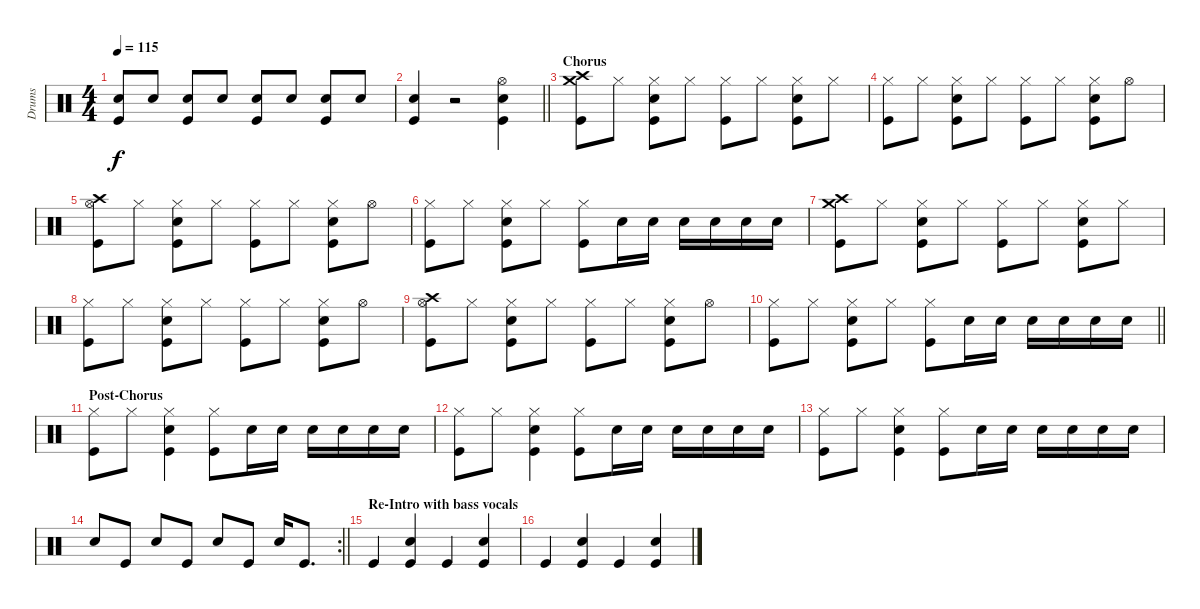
\track ("Drums" "Drums") {instrument percussion}
\staff {score}
\articulation defaults
\ts (4 4)
\tempo 115
\clef neutral
\ks c
("Snare (hit) 2" "Kick (hit)").8{dy f} "Snare (hit) 2".8 ("Snare (hit) 2" "Kick (hit)").8 "Snare (hit) 2".8 ("Snare (hit) 2" "Kick (hit)").8 "Snare (hit) 2".8 ("Snare (hit) 2" "Kick (hit)").8 "Snare (hit) 2".8 |
\barLineRight lightlight
("Snare (hit) 2" "Kick (hit)").4 r.2 ("Hi-Hat (open)" "Snare (hit) 2" "Kick (hit)").4 |
\section ("" "Chorus")
("Crash medium (hit)" "Crash high (hit)" "Kick (hit)").8 "Hi-Hat (closed)".8 ("Hi-Hat (closed)" "Snare (hit) 2" "Kick (hit)").8 "Hi-Hat (closed)".8 ("Hi-Hat (closed)" "Kick (hit)").8 "Hi-Hat (closed)".8 ("Hi-Hat (closed)" "Snare (hit) 2" "Kick (hit)").8 "Hi-Hat (closed)".8 |
("Hi-Hat (closed)" "Kick (hit)").8 "Hi-Hat (closed)".8 ("Hi-Hat (closed)" "Snare (hit) 2" "Kick (hit)").8 "Hi-Hat (closed)".8 ("Hi-Hat (closed)" "Kick (hit)").8 "Hi-Hat (closed)".8 ("Hi-Hat (closed)" "Snare (hit) 2" "Kick (hit)").8 "Hi-Hat (open)".8 |
("Crash high (hit)" "Hi-Hat (open)" "Kick (hit)").8 "Hi-Hat (closed)".8 ("Hi-Hat (closed)" "Snare (hit) 2" "Kick (hit)").8 "Hi-Hat (closed)".8 ("Hi-Hat (closed)" "Kick (hit)").8 "Hi-Hat (closed)".8 ("Hi-Hat (closed)" "Snare (hit) 2" "Kick (hit)").8 "Hi-Hat (open)".8 |
("Hi-Hat (closed)" "Kick (hit)").8 "Hi-Hat (closed)".8 ("Hi-Hat (closed)" "Snare (hit) 2" "Kick (hit)").8 "Hi-Hat (closed)".8 ("Hi-Hat (closed)" "Kick (hit)").8 "Snare (hit) 2".16 "Snare (hit) 2".16 "Snare (hit) 2".16 "Snare (hit) 2".16 "Snare (hit) 2".16 "Snare (hit) 2".16 |
("Crash medium (hit)" "Crash high (hit)" "Kick (hit)").8 "Hi-Hat (closed)".8 ("Hi-Hat (closed)" "Snare (hit) 2" "Kick (hit)").8 "Hi-Hat (closed)".8 ("Hi-Hat (closed)" "Kick (hit)").8 "Hi-Hat (closed)".8 ("Hi-Hat (closed)" "Snare (hit) 2" "Kick (hit)").8 "Hi-Hat (closed)".8 |
("Hi-Hat (closed)" "Kick (hit)").8 "Hi-Hat (closed)".8 ("Hi-Hat (closed)" "Snare (hit) 2" "Kick (hit)").8 "Hi-Hat (closed)".8 ("Hi-Hat (closed)" "Kick (hit)").8 "Hi-Hat (closed)".8 ("Hi-Hat (closed)" "Snare (hit) 2" "Kick (hit)").8 "Hi-Hat (open)".8 |
("Crash high (hit)" "Hi-Hat (open)" "Kick (hit)").8 "Hi-Hat (closed)".8 ("Hi-Hat (closed)" "Snare (hit) 2" "Kick (hit)").8 "Hi-Hat (closed)".8 ("Hi-Hat (closed)" "Kick (hit)").8 "Hi-Hat (closed)".8 ("Hi-Hat (closed)" "Snare (hit) 2" "Kick (hit)").8 "Hi-Hat (open)".8 |
\barLineRight lightlight
("Hi-Hat (closed)" "Kick (hit)").8 "Hi-Hat (closed)".8 ("Hi-Hat (closed)" "Snare (hit) 2" "Kick (hit)").8 "Hi-Hat (closed)".8 ("Hi-Hat (closed)" "Kick (hit)").8 "Snare (hit) 2".16 "Snare (hit) 2".16 "Snare (hit) 2".16 "Snare (hit) 2".16 "Snare (hit) 2".16 "Snare (hit) 2".16 |
\section ("" "Post-Chorus")
("Hi-Hat (closed)" "Kick (hit)").8 "Hi-Hat (closed)".8 ("Hi-Hat (closed)" "Snare (hit) 2" "Kick (hit)").4 ("Hi-Hat (closed)" "Kick (hit)").8 "Snare (hit) 2".16 "Snare (hit) 2".16 "Snare (hit) 2".16 "Snare (hit) 2".16 "Snare (hit) 2".16 "Snare (hit) 2".16 |
("Hi-Hat (closed)" "Kick (hit)").8 "Hi-Hat (closed)".8 ("Hi-Hat (closed)" "Snare (hit) 2" "Kick (hit)").4 ("Hi-Hat (closed)" "Kick (hit)").8 "Snare (hit) 2".16 "Snare (hit) 2".16 "Snare (hit) 2".16 "Snare (hit) 2".16 "Snare (hit) 2".16 "Snare (hit) 2".16 |
("Hi-Hat (closed)" "Kick (hit)").8 "Hi-Hat (closed)".8 ("Hi-Hat (closed)" "Snare (hit) 2" "Kick (hit)").4 ("Hi-Hat (closed)" "Kick (hit)").8 "Snare (hit) 2".16 "Snare (hit) 2".16 "Snare (hit) 2".16 "Snare (hit) 2".16 "Snare (hit) 2".16 "Snare (hit) 2".16 |
\rc 2
\barLineRight lightlight "Snare (hit) 2".8 "Kick (hit)".8 "Snare (hit) 2".8 "Kick (hit)".8 "Snare (hit) 2".8 "Kick (hit)".8 "Snare (hit) 2".16 "Kick (hit)".8{d}
|
\section ("" "Re-Intro with bass vocals")
"Kick (hit)".4 ("Snare (hit) 2" "Kick (hit)").4 "Kick (hit)".4 ("Snare (hit) 2" "Kick (hit)").4 |
"Kick (hit)".4 ("Snare (hit) 2" "Kick (hit)").4 "Kick (hit)".4 ("Snare (hit) 2" "Kick (hit)").4
